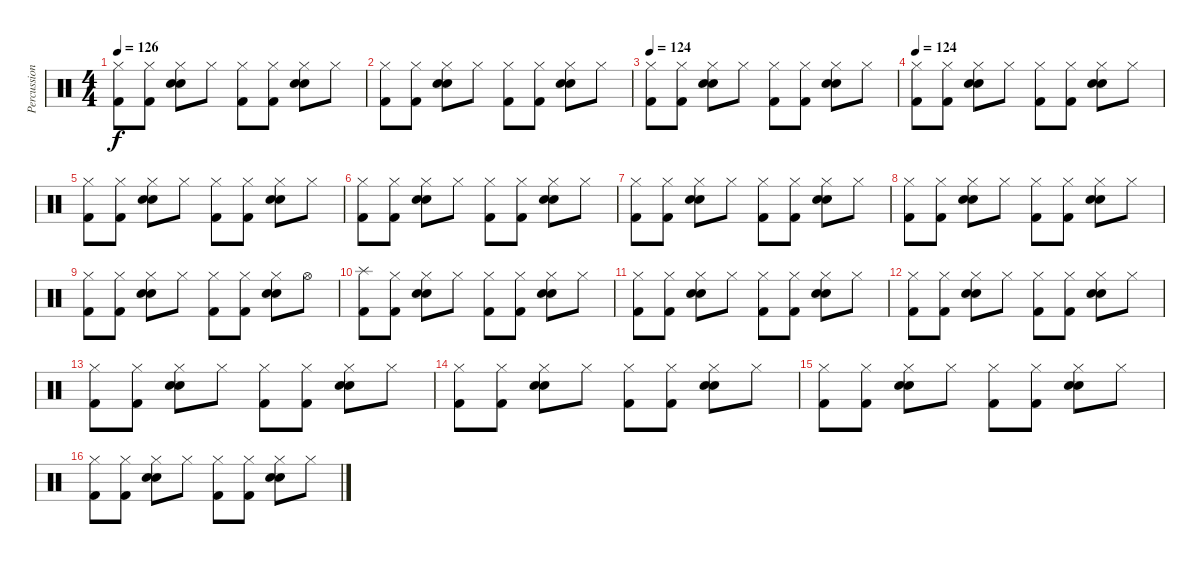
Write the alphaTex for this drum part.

\track ("Percussion" "Percussion") {instrument percussion}
\staff {score}
\articulation defaults
\ts (4 4)
\tempo 126
\clef neutral
\ks c
("Hi-Hat (closed)" "Kick (hit) 2").8{dy f} ("Hi-Hat (closed)" "Kick (hit) 2").8 ("Hi-Hat (closed)" "Snare (hit) 2" "Electric Snare (hit)").8 "Hi-Hat (closed)".8 ("Hi-Hat (closed)" "Kick (hit) 2").8 ("Hi-Hat (closed)" "Kick (hit) 2").8 ("Hi-Hat (closed)" "Snare (hit) 2" "Electric Snare (hit)").8 "Hi-Hat (closed)".8 |
("Hi-Hat (closed)" "Kick (hit) 2").8 ("Hi-Hat (closed)" "Kick (hit) 2").8 ("Hi-Hat (closed)" "Snare (hit) 2" "Electric Snare (hit)").8 "Hi-Hat (closed)".8 ("Hi-Hat (closed)" "Kick (hit) 2").8 ("Hi-Hat (closed)" "Kick (hit) 2").8 ("Hi-Hat (closed)" "Snare (hit) 2" "Electric Snare (hit)").8 "Hi-Hat (closed)".8 |
\tempo 126
\tempo 124
("Hi-Hat (closed)" "Kick (hit) 2").8 ("Hi-Hat (closed)" "Kick (hit) 2").8 ("Hi-Hat (closed)" "Snare (hit) 2" "Electric Snare (hit)").8 "Hi-Hat (closed)".8 ("Hi-Hat (closed)" "Kick (hit) 2").8 ("Hi-Hat (closed)" "Kick (hit) 2").8 ("Hi-Hat (closed)" "Snare (hit) 2" "Electric Snare (hit)").8 "Hi-Hat (closed)".8 |
\tempo 124
("Hi-Hat (closed)" "Kick (hit) 2").8 ("Hi-Hat (closed)" "Kick (hit) 2").8 ("Hi-Hat (closed)" "Snare (hit) 2" "Electric Snare (hit)").8 "Hi-Hat (closed)".8 ("Hi-Hat (closed)" "Kick (hit) 2").8 ("Hi-Hat (closed)" "Kick (hit) 2").8 ("Hi-Hat (closed)" "Snare (hit) 2" "Electric Snare (hit)").8 "Hi-Hat (closed)".8 |
("Hi-Hat (closed)" "Kick (hit) 2").8 ("Hi-Hat (closed)" "Kick (hit) 2").8 ("Hi-Hat (closed)" "Snare (hit) 2" "Electric Snare (hit)").8 "Hi-Hat (closed)".8 ("Hi-Hat (closed)" "Kick (hit) 2").8 ("Hi-Hat (closed)" "Kick (hit) 2").8 ("Hi-Hat (closed)" "Snare (hit) 2" "Electric Snare (hit)").8 "Hi-Hat (closed)".8 |
("Hi-Hat (closed)" "Kick (hit) 2").8 ("Hi-Hat (closed)" "Kick (hit) 2").8 ("Hi-Hat (closed)" "Snare (hit) 2" "Electric Snare (hit)").8 "Hi-Hat (closed)".8 ("Hi-Hat (closed)" "Kick (hit) 2").8 ("Hi-Hat (closed)" "Kick (hit) 2").8 ("Hi-Hat (closed)" "Snare (hit) 2" "Electric Snare (hit)").8 "Hi-Hat (closed)".8 |
("Hi-Hat (closed)" "Kick (hit) 2").8 ("Hi-Hat (closed)" "Kick (hit) 2").8 ("Hi-Hat (closed)" "Snare (hit) 2" "Electric Snare (hit)").8 "Hi-Hat (closed)".8 ("Hi-Hat (closed)" "Kick (hit) 2").8 ("Hi-Hat (closed)" "Kick (hit) 2").8 ("Hi-Hat (closed)" "Snare (hit) 2" "Electric Snare (hit)").8 "Hi-Hat (closed)".8 |
("Hi-Hat (closed)" "Kick (hit) 2").8 ("Hi-Hat (closed)" "Kick (hit) 2").8 ("Hi-Hat (closed)" "Snare (hit) 2" "Electric Snare (hit)").8 "Hi-Hat (closed)".8 ("Hi-Hat (closed)" "Kick (hit) 2").8 ("Hi-Hat (closed)" "Kick (hit) 2").8 ("Hi-Hat (closed)" "Snare (hit) 2" "Electric Snare (hit)").8 "Hi-Hat (closed)".8 |
("Hi-Hat (closed)" "Kick (hit) 2").8 ("Hi-Hat (closed)" "Kick (hit) 2").8 ("Hi-Hat (closed)" "Snare (hit) 2" "Electric Snare (hit)").8 "Hi-Hat (closed)".8 ("Hi-Hat (closed)" "Kick (hit) 2").8 ("Hi-Hat (closed)" "Kick (hit) 2").8 ("Hi-Hat (closed)" "Snare (hit) 2" "Electric Snare (hit)").8 "Hi-Hat (open)".8 |
("Splash (hit)" "Kick (hit) 2").8 ("Hi-Hat (closed)" "Kick (hit) 2").8 ("Hi-Hat (closed)" "Snare (hit) 2" "Electric Snare (hit)").8 "Hi-Hat (closed)".8 ("Hi-Hat (closed)" "Kick (hit) 2").8 ("Hi-Hat (closed)" "Kick (hit) 2").8 ("Hi-Hat (closed)" "Snare (hit) 2" "Electric Snare (hit)").8 "Hi-Hat (closed)".8 |
("Hi-Hat (closed)" "Kick (hit) 2").8 ("Hi-Hat (closed)" "Kick (hit) 2").8 ("Hi-Hat (closed)" "Snare (hit) 2" "Electric Snare (hit)").8 "Hi-Hat (closed)".8 ("Hi-Hat (closed)" "Kick (hit) 2").8 ("Hi-Hat (closed)" "Kick (hit) 2").8 ("Hi-Hat (closed)" "Snare (hit) 2" "Electric Snare (hit)").8 "Hi-Hat (closed)".8 |
("Hi-Hat (closed)" "Kick (hit) 2").8 ("Hi-Hat (closed)" "Kick (hit) 2").8 ("Hi-Hat (closed)" "Snare (hit) 2" "Electric Snare (hit)").8 "Hi-Hat (closed)".8 ("Hi-Hat (closed)" "Kick (hit) 2").8 ("Hi-Hat (closed)" "Kick (hit) 2").8 ("Hi-Hat (closed)" "Snare (hit) 2" "Electric Snare (hit)").8 "Hi-Hat (closed)".8 |
("Hi-Hat (closed)" "Kick (hit) 2").8 ("Hi-Hat (closed)" "Kick (hit) 2").8 ("Hi-Hat (closed)" "Snare (hit) 2" "Electric Snare (hit)").8 "Hi-Hat (closed)".8 ("Hi-Hat (closed)" "Kick (hit) 2").8 ("Hi-Hat (closed)" "Kick (hit) 2").8 ("Hi-Hat (closed)" "Snare (hit) 2" "Electric Snare (hit)").8 "Hi-Hat (closed)".8 |
("Hi-Hat (closed)" "Kick (hit) 2").8 ("Hi-Hat (closed)" "Kick (hit) 2").8 ("Hi-Hat (closed)" "Snare (hit) 2" "Electric Snare (hit)").8 "Hi-Hat (closed)".8 ("Hi-Hat (closed)" "Kick (hit) 2").8 ("Hi-Hat (closed)" "Kick (hit) 2").8 ("Hi-Hat (closed)" "Snare (hit) 2" "Electric Snare (hit)").8 "Hi-Hat (closed)".8 |
("Hi-Hat (closed)" "Kick (hit) 2").8 ("Hi-Hat (closed)" "Kick (hit) 2").8 ("Hi-Hat (closed)" "Snare (hit) 2" "Electric Snare (hit)").8 "Hi-Hat (closed)".8 ("Hi-Hat (closed)" "Kick (hit) 2").8 ("Hi-Hat (closed)" "Kick (hit) 2").8 ("Hi-Hat (closed)" "Snare (hit) 2" "Electric Snare (hit)").8 "Hi-Hat (closed)".8 |
("Hi-Hat (closed)" "Kick (hit) 2").8 ("Hi-Hat (closed)" "Kick (hit) 2").8 ("Hi-Hat (closed)" "Snare (hit) 2" "Electric Snare (hit)").8 "Hi-Hat (closed)".8 ("Hi-Hat (closed)" "Kick (hit) 2").8 ("Hi-Hat (closed)" "Kick (hit) 2").8 ("Hi-Hat (closed)" "Snare (hit) 2" "Electric Snare (hit)").8 "Hi-Hat (closed)".8
